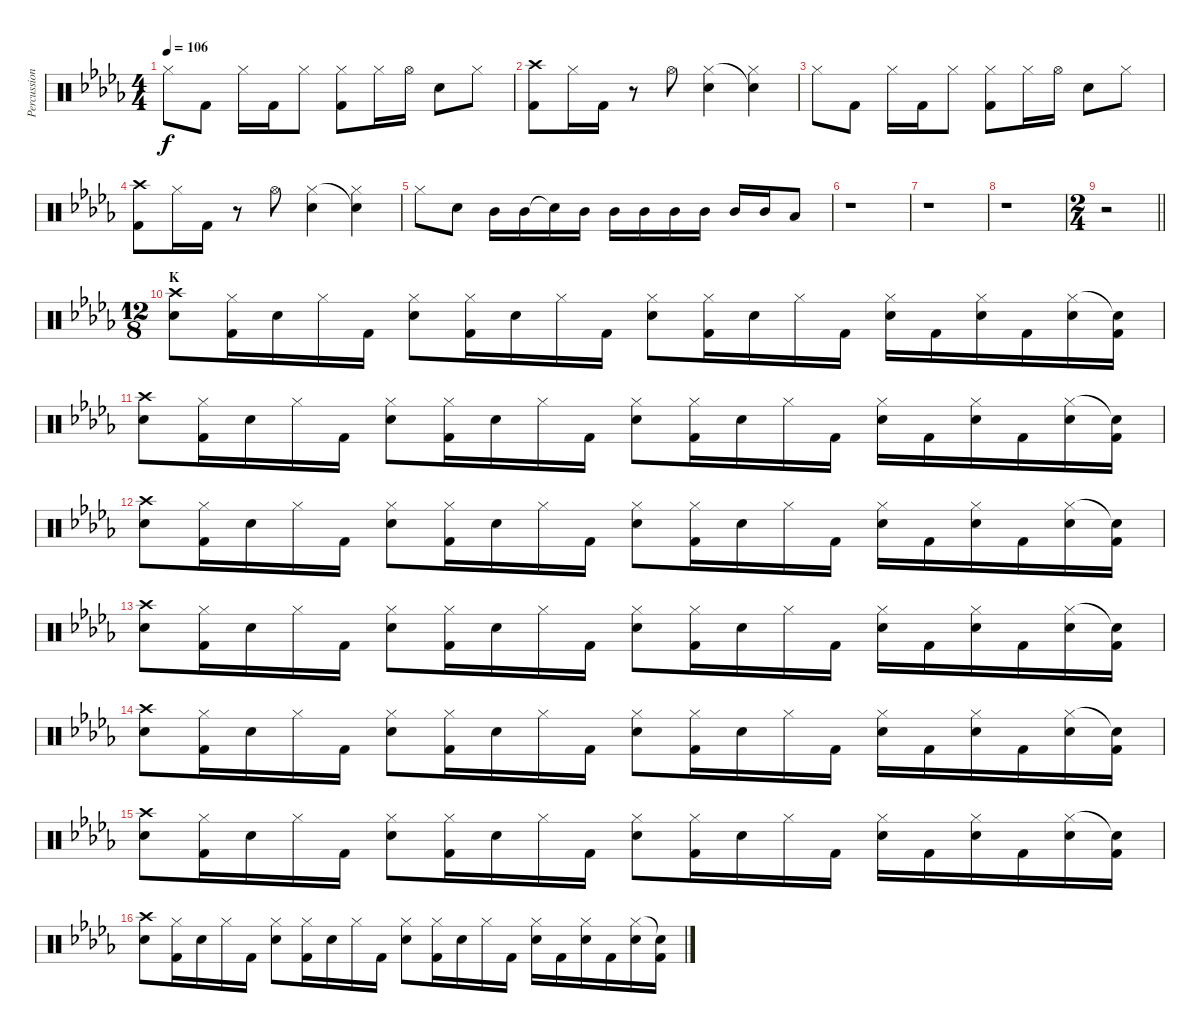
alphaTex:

\track ("Percussion" "Percussion") {instrument percussion}
\staff {score}
\articulation defaults
\ts (4 4)
\tempo 106
\clef neutral
\ks db "Hi-Hat (closed)".8{dy f} "Kick (hit) 2".8 "Hi-Hat (closed)".16 "Kick (hit) 2".16 "Hi-Hat (closed)".8
("Hi-Hat (closed)" "Kick (hit) 2").8 "Hi-Hat (closed)".16 "Hi-Hat (open)".16 "Electric Snare (hit)".8 "Hi-Hat (closed)".8 |
("Crash high (hit)" "Kick (hit) 2").8 "Hi-Hat (closed)".16 "Kick (hit) 2".16 r.8 "Hi-Hat (open)".8 ("Hi-Hat (closed)" "Electric Snare (hit)").4 ("Snare (hit)"{t} "Hi-Hat (closed)").4 |
"Hi-Hat (closed)".8 "Kick (hit) 2".8 "Hi-Hat (closed)".16 "Kick (hit) 2".16 "Hi-Hat (closed)".8 ("Hi-Hat (closed)" "Kick (hit) 2").8 "Hi-Hat (closed)".16 "Hi-Hat (open)".16 "Electric Snare (hit)".8 "Hi-Hat (closed)".8 |
("Crash high (hit)" "Kick (hit) 2").8 "Hi-Hat (closed)".16 "Kick (hit) 2".16 r.8 "Hi-Hat (open)".8 ("Hi-Hat (closed)" "Electric Snare (hit)").4 ("Snare (hit)"{t} "Hi-Hat (closed)").4 |
"Hi-Hat (closed)".8 "Electric Snare (hit)".8 "Mid Tom (hit)".16 "Mid Tom (hit)".16 "Snare (hit)"{t}.16 "Mid Tom (hit)".16 "Mid Tom (hit)".16 "Mid Tom (hit)".16 "Mid Tom (hit)".16 "Mid Tom (hit)".16 "Mid Tom (hit)".16 "Mid Tom (hit)".16 "Low Tom (hit)".8 |
r.1 |
r.1 |
r.1 |
\ts (2 4)
\barLineRight lightlight
r.2 |
\ts (12 8)
\section ("" "K")
("Crash high (hit)" "Electric Snare (hit)").8 ("Hi-Hat (closed)" "Kick (hit) 2").16 "Electric Snare (hit)".16 "Hi-Hat (closed)".16 "Kick (hit) 2".16 ("Hi-Hat (closed)" "Electric Snare (hit)").8 ("Hi-Hat (closed)" "Kick (hit) 2").16 "Electric Snare (hit)".16 "Hi-Hat (closed)".16 "Kick (hit) 2".16 ("Hi-Hat (closed)" "Electric Snare (hit)").8 ("Hi-Hat (closed)" "Kick (hit) 2").16 "Electric Snare (hit)".16 "Hi-Hat (closed)".16 "Kick (hit) 2".16 ("Hi-Hat (closed)" "Electric Snare (hit)").16 "Kick (hit) 2".16 ("Hi-Hat (closed)" "Electric Snare (hit)").16 "Kick (hit) 2".16 ("Hi-Hat (closed)" "Electric Snare (hit)").16 ("Snare (hit)"{t} "Kick (hit) 2").16 |
("Crash high (hit)" "Electric Snare (hit)").8 ("Hi-Hat (closed)" "Kick (hit) 2").16 "Electric Snare (hit)".16 "Hi-Hat (closed)".16 "Kick (hit) 2".16 ("Hi-Hat (closed)" "Electric Snare (hit)").8 ("Hi-Hat (closed)" "Kick (hit) 2").16 "Electric Snare (hit)".16 "Hi-Hat (closed)".16 "Kick (hit) 2".16 ("Hi-Hat (closed)" "Electric Snare (hit)").8 ("Hi-Hat (closed)" "Kick (hit) 2").16 "Electric Snare (hit)".16 "Hi-Hat (closed)".16 "Kick (hit) 2".16 ("Hi-Hat (closed)" "Electric Snare (hit)").16 "Kick (hit) 2".16 ("Hi-Hat (closed)" "Electric Snare (hit)").16 "Kick (hit) 2".16 ("Hi-Hat (closed)" "Electric Snare (hit)").16 ("Snare (hit)"{t} "Kick (hit) 2").16 |
("Crash high (hit)" "Electric Snare (hit)").8 ("Hi-Hat (closed)" "Kick (hit) 2").16 "Electric Snare (hit)".16 "Hi-Hat (closed)".16 "Kick (hit) 2".16 ("Hi-Hat (closed)" "Electric Snare (hit)").8 ("Hi-Hat (closed)" "Kick (hit) 2").16 "Electric Snare (hit)".16 "Hi-Hat (closed)".16 "Kick (hit) 2".16 ("Hi-Hat (closed)" "Electric Snare (hit)").8 ("Hi-Hat (closed)" "Kick (hit) 2").16 "Electric Snare (hit)".16 "Hi-Hat (closed)".16 "Kick (hit) 2".16 ("Hi-Hat (closed)" "Electric Snare (hit)").16 "Kick (hit) 2".16 ("Hi-Hat (closed)" "Electric Snare (hit)").16 "Kick (hit) 2".16 ("Hi-Hat (closed)" "Electric Snare (hit)").16 ("Snare (hit)"{t} "Kick (hit) 2").16 |
("Crash high (hit)" "Electric Snare (hit)").8 ("Hi-Hat (closed)" "Kick (hit) 2").16 "Electric Snare (hit)".16 "Hi-Hat (closed)".16 "Kick (hit) 2".16 ("Hi-Hat (closed)" "Electric Snare (hit)").8 ("Hi-Hat (closed)" "Kick (hit) 2").16 "Electric Snare (hit)".16 "Hi-Hat (closed)".16 "Kick (hit) 2".16 ("Hi-Hat (closed)" "Electric Snare (hit)").8 ("Hi-Hat (closed)" "Kick (hit) 2").16 "Electric Snare (hit)".16 "Hi-Hat (closed)".16 "Kick (hit) 2".16 ("Hi-Hat (closed)" "Electric Snare (hit)").16 "Kick (hit) 2".16 ("Hi-Hat (closed)" "Electric Snare (hit)").16 "Kick (hit) 2".16 ("Hi-Hat (closed)" "Electric Snare (hit)").16 ("Snare (hit)"{t} "Kick (hit) 2").16 |
("Crash high (hit)" "Electric Snare (hit)").8 ("Hi-Hat (closed)" "Kick (hit) 2").16 "Electric Snare (hit)".16 "Hi-Hat (closed)".16 "Kick (hit) 2".16 ("Hi-Hat (closed)" "Electric Snare (hit)").8 ("Hi-Hat (closed)" "Kick (hit) 2").16 "Electric Snare (hit)".16 "Hi-Hat (closed)".16 "Kick (hit) 2".16 ("Hi-Hat (closed)" "Electric Snare (hit)").8 ("Hi-Hat (closed)" "Kick (hit) 2").16 "Electric Snare (hit)".16 "Hi-Hat (closed)".16 "Kick (hit) 2".16 ("Hi-Hat (closed)" "Electric Snare (hit)").16 "Kick (hit) 2".16 ("Hi-Hat (closed)" "Electric Snare (hit)").16 "Kick (hit) 2".16 ("Hi-Hat (closed)" "Electric Snare (hit)").16 ("Snare (hit)"{t} "Kick (hit) 2").16 |
("Crash high (hit)" "Electric Snare (hit)").8 ("Hi-Hat (closed)" "Kick (hit) 2").16 "Electric Snare (hit)".16 "Hi-Hat (closed)".16 "Kick (hit) 2".16 ("Hi-Hat (closed)" "Electric Snare (hit)").8 ("Hi-Hat (closed)" "Kick (hit) 2").16 "Electric Snare (hit)".16 "Hi-Hat (closed)".16 "Kick (hit) 2".16 ("Hi-Hat (closed)" "Electric Snare (hit)").8 ("Hi-Hat (closed)" "Kick (hit) 2").16 "Electric Snare (hit)".16 "Hi-Hat (closed)".16 "Kick (hit) 2".16 ("Hi-Hat (closed)" "Electric Snare (hit)").16 "Kick (hit) 2".16 ("Hi-Hat (closed)" "Electric Snare (hit)").16 "Kick (hit) 2".16 ("Hi-Hat (closed)" "Electric Snare (hit)").16 ("Snare (hit)"{t} "Kick (hit) 2").16 |
("Crash high (hit)" "Electric Snare (hit)").8 ("Hi-Hat (closed)" "Kick (hit) 2").16 "Electric Snare (hit)".16 "Hi-Hat (closed)".16 "Kick (hit) 2".16 ("Hi-Hat (closed)" "Electric Snare (hit)").8 ("Hi-Hat (closed)" "Kick (hit) 2").16 "Electric Snare (hit)".16 "Hi-Hat (closed)".16 "Kick (hit) 2".16 ("Hi-Hat (closed)" "Electric Snare (hit)").8 ("Hi-Hat (closed)" "Kick (hit) 2").16 "Electric Snare (hit)".16 "Hi-Hat (closed)".16 "Kick (hit) 2".16 ("Hi-Hat (closed)" "Electric Snare (hit)").16 "Kick (hit) 2".16 ("Hi-Hat (closed)" "Electric Snare (hit)").16 "Kick (hit) 2".16 ("Hi-Hat (closed)" "Electric Snare (hit)").16 ("Snare (hit)"{t} "Kick (hit) 2").16
